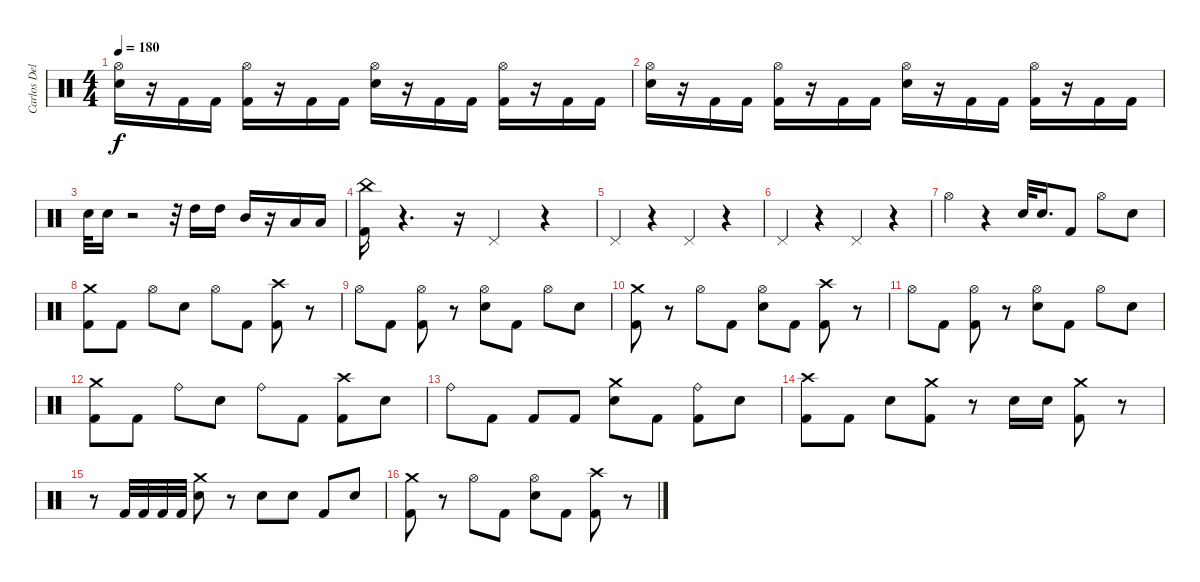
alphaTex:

\track ("Carlos Delgado" "Carlos Del") {instrument percussion}
\staff {score}
\articulation defaults
\ts (4 4)
\tempo 180
\clef neutral
\ks c
("Electric Snare (hit)" "Hi-Hat (open)").16{dy f} r.16 "Kick (hit) 2".16 "Kick (hit) 2".16 ("Hi-Hat (open)" "Kick (hit) 2").16 r.16 "Kick (hit) 2".16 "Kick (hit) 2".16 ("Hi-Hat (open)" "Electric Snare (hit)").16 r.16 "Kick (hit) 2".16 "Kick (hit) 2".16 ("Hi-Hat (open)" "Kick (hit) 2").16 r.16 "Kick (hit) 2".16 "Kick (hit) 2".16 |
("Electric Snare (hit)" "Hi-Hat (open)").16 r.16 "Kick (hit) 2".16 "Kick (hit) 2".16 ("Hi-Hat (open)" "Kick (hit) 2").16 r.16 "Kick (hit) 2".16 "Kick (hit) 2".16 ("Hi-Hat (open)" "Electric Snare (hit)").16 r.16 "Kick (hit) 2".16 "Kick (hit) 2".16 ("Hi-Hat (open)" "Kick (hit) 2").16 r.16 "Kick (hit) 2".16 "Kick (hit) 2".16 |
"Electric Snare (hit)".32 "Electric Snare (hit)".16 r.2 r.32 "High Tom (hit)".16 "High Tom (hit)".16 "Mid Tom (hit)".16 r.16 "Low Tom (hit)".16 "Low Tom (hit)".16 |
("China (hit)" "Kick (hit) 2").16 r.4{d} r.16 "Pedal Hi-Hat (hit)".4 r.4 |
"Pedal Hi-Hat (hit)".4 r.4 "Pedal Hi-Hat (hit)".4 r.4 |
"Pedal Hi-Hat (hit)".4 r.4 "Pedal Hi-Hat (hit)".4 r.4 |
"Hi-Hat (open)".4 r.4 "Electric Snare (hit)".32 "Electric Snare (hit)".16{d} "Kick (hit) 2".8 "Hi-Hat (open)".8 "Electric Snare (hit)".8 |
("Crash medium (hit)" "Kick (hit) 2").8 "Kick (hit) 2".8 "Hi-Hat (open)".8 "Electric Snare (hit)".8 "Hi-Hat (open)".8 "Kick (hit) 2".8 ("Crash high (hit)" "Kick (hit) 2").8 r.8 |
"Hi-Hat (open)".8 "Kick (hit) 2".8 ("Hi-Hat (open)" "Kick (hit) 2").8 r.8 ("Hi-Hat (open)" "Electric Snare (hit)").8 "Kick (hit) 2".8 "Hi-Hat (open)".8 "Electric Snare (hit)".8 |
("Crash medium (hit)" "Kick (hit) 2").8 r.8 "Hi-Hat (open)".8 "Kick (hit) 2".8 ("Hi-Hat (open)" "Electric Snare (hit)").8 "Kick (hit) 2".8 ("Crash high (hit)" "Kick (hit) 2").8 r.8 |
"Hi-Hat (open)".8 "Kick (hit) 2".8 ("Hi-Hat (open)" "Kick (hit) 2").8 r.8 ("Electric Snare (hit)" "Hi-Hat (open)").8 "Kick (hit) 2".8 "Hi-Hat (open)".8 "Electric Snare (hit)".8 |
("Crash medium (hit)" "Kick (hit) 2").8 "Kick (hit) 2".8 "Ride (bell)".8 "Electric Snare (hit)".8 "Ride (bell)".8 "Kick (hit) 2".8 ("Kick (hit) 2" "Crash high (hit)").8 "Electric Snare (hit)".8 |
"Ride (bell)".8 "Kick (hit) 2".8 "Kick (hit) 2".8 "Kick (hit) 2".8 ("Crash medium (hit)" "Electric Snare (hit)").8 "Kick (hit) 2".8 ("Ride (bell)" "Kick (hit) 2").8 "Electric Snare (hit)".8 |
("Kick (hit) 2" "Crash high (hit)").8 "Kick (hit) 2".8 "Electric Snare (hit)".8 ("Crash medium (hit)" "Kick (hit) 2").8 r.8 "Electric Snare (hit)".16 "Electric Snare (hit)".16 ("Crash medium (hit)" "Kick (hit) 2").8 r.8 |
r.8 "Kick (hit) 2".32 "Kick (hit) 2".32 "Kick (hit) 2".32 "Kick (hit) 2".32 ("Electric Snare (hit)" "Crash medium (hit)").8 r.8 "Electric Snare (hit)".8 "Electric Snare (hit)".8 "Kick (hit) 2".8 "Electric Snare (hit)".8 |
("Crash medium (hit)" "Kick (hit) 2").8 r.8 "Hi-Hat (open)".8 "Kick (hit) 2".8 ("Hi-Hat (open)" "Electric Snare (hit)").8 "Kick (hit) 2".8 ("Crash high (hit)" "Kick (hit) 2").8 r.8
